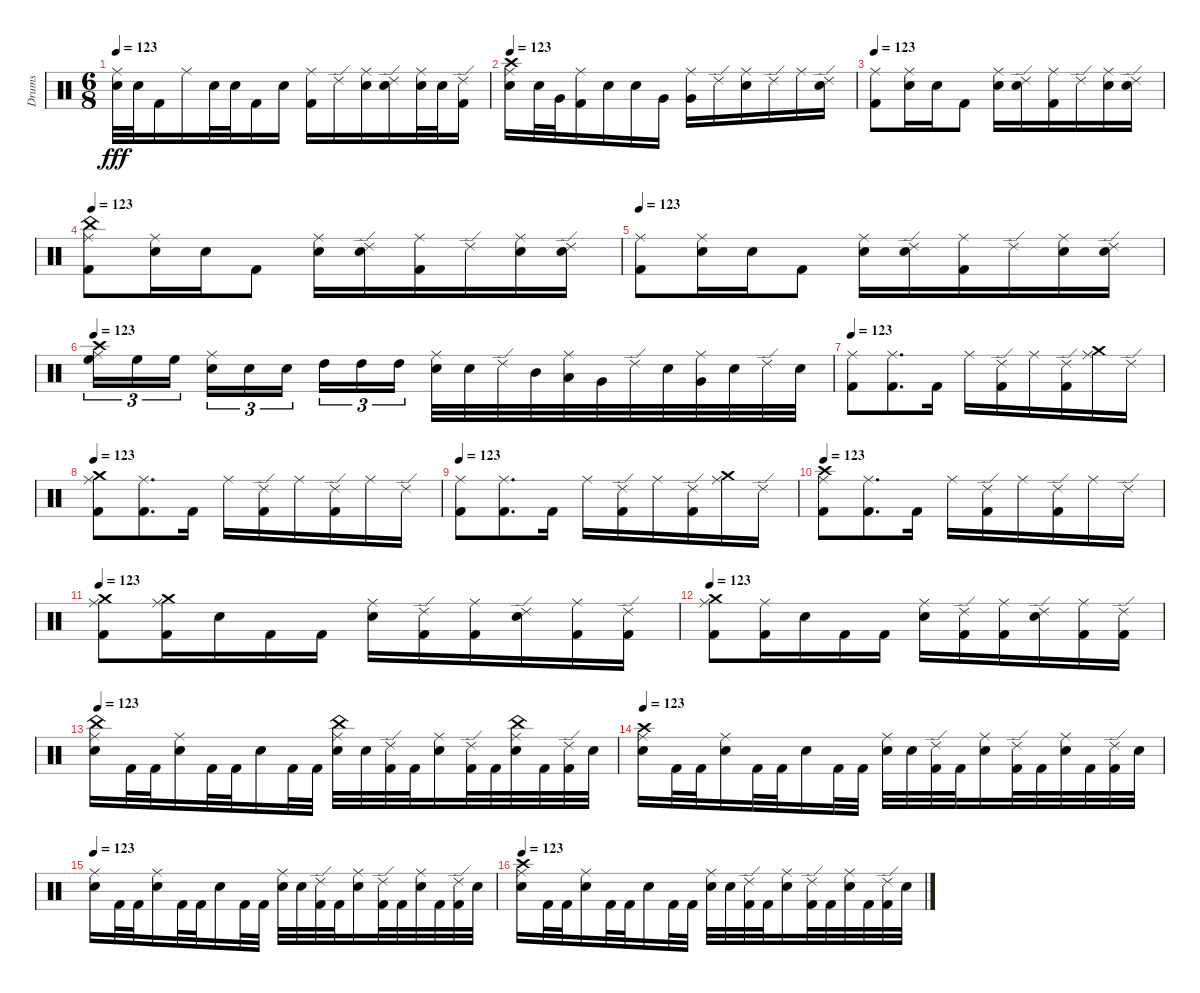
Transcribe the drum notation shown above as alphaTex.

\track ("Drums" "Drums") {instrument percussion}
\staff {score}
\articulation defaults
\ts (6 8)
\tempo 123
\clef neutral
\ks c
("Electric Snare (hit)" "Ride (middle)").32{dy fff} "Electric Snare (hit)".32 "Kick (hit) 2".16 "Ride (middle)".16 "Electric Snare (hit)".32 "Electric Snare (hit)".32 "Kick (hit) 2".16 "Snare (hit) 2".16 ("Kick (hit) 2" "Ride (middle)").16 "Ride (edge) 2".16 ("Snare (hit) 2" "Ride (middle)").16 ("Snare (hit) 2" "Ride (edge) 2").16 ("Snare (hit) 2" "Ride (middle)").32 "Electric Snare (hit)".32 ("Kick (hit) 2" "Ride (edge) 2").16 |
\tempo 123
("Snare (hit) 2" "Ride (middle)" "Crash high (hit)").16 "Electric Snare (hit)".32 "Very Low Tom (hit)".32 ("Kick (hit) 2" "Ride (middle)").16 "Snare (hit) 2".16 "Electric Snare (hit)".16 "Very Low Tom (hit)".16 ("Very Low Tom (hit)" "Ride (middle)").16 "Ride (edge) 2".16 ("Snare (hit) 2" "Ride (middle)").16 "Ride (edge) 2".16 "Ride (middle)".16 ("Snare (hit) 2" "Ride (edge) 2").16 |
\tempo 123
("Kick (hit) 2" "Ride (middle)").8 ("Electric Snare (hit)" "Ride (middle)").16 "Snare (hit) 2".16 "Kick (hit) 2".8 ("Snare (hit) 2" "Ride (middle)").16 ("Electric Snare (hit)" "Ride (edge) 2").16 ("Kick (hit) 2" "Ride (middle)").16 "Ride (edge) 2".16 ("Snare (hit) 2" "Ride (middle)").16 ("Snare (hit) 2" "Ride (edge) 2").16 |
\tempo 123
("Kick (hit) 2" "Ride (middle)" "China (hit)").8 ("Electric Snare (hit)" "Ride (middle)").16 "Snare (hit) 2".16 "Kick (hit) 2".8 ("Snare (hit) 2" "Ride (middle)").16 ("Electric Snare (hit)" "Ride (edge) 2").16 ("Kick (hit) 2" "Ride (middle)").16 "Ride (edge) 2".16 ("Snare (hit) 2" "Ride (middle)").16 ("Snare (hit) 2" "Ride (edge) 2").16 |
\tempo 123
("Kick (hit) 2" "Ride (middle)").8 ("Electric Snare (hit)" "Ride (middle)").16 "Snare (hit) 2".16 "Kick (hit) 2".8 ("Snare (hit) 2" "Ride (middle)").16 ("Electric Snare (hit)" "Ride (edge) 2").16 ("Kick (hit) 2" "Ride (middle)").16 "Ride (edge) 2".16 ("Snare (hit) 2" "Ride (middle)").16 ("Snare (hit) 2" "Ride (edge) 2").16 |
\tempo 123
("High Floor Tom (hit)" "Ride (middle)" "Crash high (hit)").16{tu (3 2)} "High Floor Tom (hit)".16{tu (3 2)} "High Floor Tom (hit)".16{tu (3 2) beam splitsecondary} ("Snare (hit) 2" "Ride (middle)").16{tu (3 2)} "Snare (hit) 2".16{tu (3 2)} "Snare (hit) 2".16{tu (3 2) beam splitsecondary} "High Tom (hit)".16{tu (3 2)} "High Tom (hit)".16{tu (3 2)} "High Tom (hit)".16{tu (3 2)} ("Electric Snare (hit)" "Ride (middle)").32 "Snare (hit) 2".32 "Ride (edge) 2".32 "Mid Tom (hit)".32 ("Low Tom (hit)" "Ride (middle)").32 "Very Low Tom (hit)".32 "Ride (edge) 2".32 "Snare (hit) 2".32 ("Very Low Tom (hit)" "Ride (middle)").32 "Electric Snare (hit)".32 "Ride (edge) 2".32 "Snare (hit) 2".32 |
\tempo 123
("Kick (hit) 2" "Ride (middle)").8 ("Kick (hit) 2" "Ride (middle)").8{d} "Kick (hit) 2".16 "Ride (middle)".16 ("Kick (hit) 2" "Ride (edge) 2").16 "Ride (middle)".16 ("Kick (hit) 2" "Ride (edge) 2").16 ("Ride (middle)" "Crash medium (hit)").16 "Ride (edge) 2".16 |
\tempo 123
("Kick (hit) 2" "Ride (middle)" "Crash medium (hit)").8 ("Kick (hit) 2" "Ride (middle)").8{d} "Kick (hit) 2".16 "Ride (middle)".16 ("Kick (hit) 2" "Ride (edge) 2").16 "Ride (middle)".16 ("Kick (hit) 2" "Ride (edge) 2").16 "Ride (middle)".16 "Ride (edge) 2".16 |
\tempo 123
("Kick (hit) 2" "Ride (middle)").8 ("Kick (hit) 2" "Ride (middle)").8{d} "Kick (hit) 2".16 "Ride (middle)".16 ("Kick (hit) 2" "Ride (edge) 2").16 "Ride (middle)".16 ("Kick (hit) 2" "Ride (edge) 2").16 ("Ride (middle)" "Crash medium (hit)").16 "Ride (edge) 2".16 |
\tempo 123
("Kick (hit) 2" "Ride (middle)" "Crash high (hit)").8{volume 12} ("Kick (hit) 2" "Ride (middle)").8{d} "Kick (hit) 2".16 "Ride (middle)".16 ("Kick (hit) 2" "Ride (edge) 2").16 "Ride (middle)".16 ("Kick (hit) 2" "Ride (edge) 2").16 "Ride (middle)".16 "Ride (edge) 2".16 |
\tempo 123
("Kick (hit) 2" "Ride (middle)" "Crash medium (hit)").8 ("Kick (hit) 2" "Ride (middle)" "Crash medium (hit)").16 "Snare (hit) 2".16 "Kick (hit) 2".16 "Kick (hit) 2".16 ("Snare (hit) 2" "Ride (middle)").16 ("Kick (hit) 2" "Ride (edge) 2").16 ("Kick (hit) 2" "Ride (middle)").16 ("Snare (hit) 2" "Ride (edge) 2").16 ("Kick (hit) 2" "Ride (middle)").16 ("Kick (hit) 2" "Ride (edge) 2").16 |
\tempo 123
("Kick (hit) 2" "Ride (middle)" "Crash medium (hit)").8{volume 8} ("Kick (hit) 2" "Ride (middle)").16 "Snare (hit) 2".16 "Kick (hit) 2".16 "Kick (hit) 2".16 ("Snare (hit) 2" "Ride (middle)").16 ("Kick (hit) 2" "Ride (edge) 2").16 ("Kick (hit) 2" "Ride (middle)").16 ("Snare (hit) 2" "Ride (edge) 2").16 ("Kick (hit) 2" "Ride (middle)").16 ("Kick (hit) 2" "Ride (edge) 2").16 |
\tempo 123
("Snare (hit) 2" "Ride (middle)" "China (hit)").16 "Kick (hit) 2".32 "Kick (hit) 2".32 ("Snare (hit) 2" "Ride (middle)").16 "Kick (hit) 2".32 "Kick (hit) 2".32 "Snare (hit) 2".16 "Kick (hit) 2".32 "Kick (hit) 2".32 ("Electric Snare (hit)" "Ride (middle)" "China (hit)").32 "Electric Snare (hit)".32 ("Kick (hit) 2" "Ride (edge) 2").32 "Kick (hit) 2".32 ("Electric Snare (hit)" "Ride (middle)").16 ("Kick (hit) 2" "Ride (edge) 2").32 "Kick (hit) 2".32 ("Snare (hit) 2" "Ride (middle)" "China (hit)").32 "Kick (hit) 2".32 ("Kick (hit) 2" "Ride (edge) 2").32 "Snare (hit) 2".32 |
\tempo 123
("Snare (hit) 2" "Ride (middle)" "Crash high (hit)").16{volume 0} "Kick (hit) 2".32 "Kick (hit) 2".32 ("Snare (hit) 2" "Ride (middle)").16 "Kick (hit) 2".32 "Kick (hit) 2".32 "Snare (hit) 2".16 "Kick (hit) 2".32 "Kick (hit) 2".32 ("Electric Snare (hit)" "Ride (middle)").32 "Electric Snare (hit)".32 ("Kick (hit) 2" "Ride (edge) 2").32 "Kick (hit) 2".32 ("Electric Snare (hit)" "Ride (middle)").16 ("Kick (hit) 2" "Ride (edge) 2").32 "Kick (hit) 2".32 ("Snare (hit) 2" "Ride (middle)").32 "Kick (hit) 2".32 ("Kick (hit) 2" "Ride (edge) 2").32 "Snare (hit) 2".32 |
\tempo 123
("Snare (hit) 2" "Ride (middle)").16 "Kick (hit) 2".32 "Kick (hit) 2".32 ("Snare (hit) 2" "Ride (middle)").16 "Kick (hit) 2".32 "Kick (hit) 2".32 "Snare (hit) 2".16 "Kick (hit) 2".32 "Kick (hit) 2".32 ("Electric Snare (hit)" "Ride (middle)").32 "Electric Snare (hit)".32 ("Kick (hit) 2" "Ride (edge) 2").32 "Kick (hit) 2".32 ("Electric Snare (hit)" "Ride (middle)").16 ("Kick (hit) 2" "Ride (edge) 2").32 "Kick (hit) 2".32 ("Snare (hit) 2" "Ride (middle)").32 "Kick (hit) 2".32 ("Kick (hit) 2" "Ride (edge) 2").32 "Snare (hit) 2".32 |
\tempo 123
("Snare (hit) 2" "Ride (middle)" "Crash high (hit)").16 "Kick (hit) 2".32 "Kick (hit) 2".32 ("Snare (hit) 2" "Ride (middle)").16 "Kick (hit) 2".32 "Kick (hit) 2".32 "Snare (hit) 2".16 "Kick (hit) 2".32 "Kick (hit) 2".32 ("Electric Snare (hit)" "Ride (middle)").32 "Electric Snare (hit)".32 ("Kick (hit) 2" "Ride (edge) 2").32 "Kick (hit) 2".32 ("Electric Snare (hit)" "Ride (middle)").16 ("Kick (hit) 2" "Ride (edge) 2").32 "Kick (hit) 2".32 ("Snare (hit) 2" "Ride (middle)").32 "Kick (hit) 2".32 ("Kick (hit) 2" "Ride (edge) 2").32 "Snare (hit) 2".32
